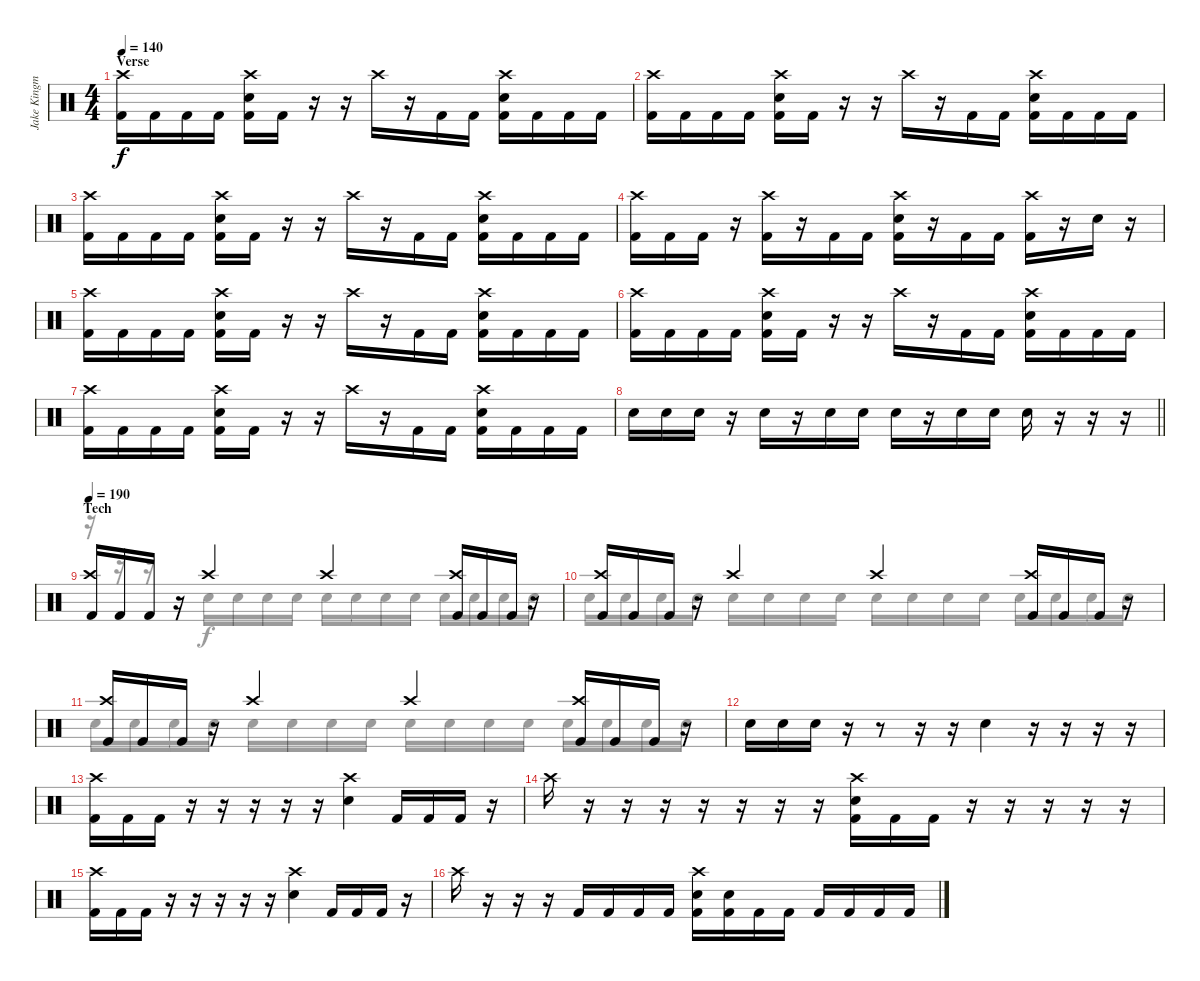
\track ("Jake Kingman (Drums)" "Jake Kingm") {instrument percussion}
\staff {score}
\articulation defaults
\voice
\ts (4 4)
\section ("" "Verse")
\tempo 140
\clef neutral
\ks c
("Crash high (hit)" "Kick (hit) 2").16{dy f} "Kick (hit) 2".16 "Kick (hit) 2".16 "Kick (hit) 2".16 ("Crash high (hit)" "Electric Snare (hit)" "Kick (hit) 2").16 "Kick (hit) 2".16 r.16 r.16 "Crash high (hit)".16 r.16 "Kick (hit) 2".16 "Kick (hit) 2".16 ("Crash high (hit)" "Electric Snare (hit)" "Kick (hit) 2").16 "Kick (hit) 2".16 "Kick (hit) 2".16 "Kick (hit) 2".16 |
("Crash high (hit)" "Kick (hit) 2").16 "Kick (hit) 2".16 "Kick (hit) 2".16 "Kick (hit) 2".16 ("Crash high (hit)" "Electric Snare (hit)" "Kick (hit) 2").16 "Kick (hit) 2".16 r.16 r.16 "Crash high (hit)".16 r.16 "Kick (hit) 2".16 "Kick (hit) 2".16 ("Crash high (hit)" "Electric Snare (hit)" "Kick (hit) 2").16 "Kick (hit) 2".16 "Kick (hit) 2".16 "Kick (hit) 2".16 |
("Crash high (hit)" "Kick (hit) 2").16 "Kick (hit) 2".16 "Kick (hit) 2".16 "Kick (hit) 2".16 ("Crash high (hit)" "Electric Snare (hit)" "Kick (hit) 2").16 "Kick (hit) 2".16 r.16 r.16 "Crash high (hit)".16 r.16 "Kick (hit) 2".16 "Kick (hit) 2".16 ("Crash high (hit)" "Electric Snare (hit)" "Kick (hit) 2").16 "Kick (hit) 2".16 "Kick (hit) 2".16 "Kick (hit) 2".16 |
("Crash high (hit)" "Kick (hit) 2").16 "Kick (hit) 2".16 "Kick (hit) 2".16 r.16 ("Crash high (hit)" "Kick (hit) 2").16 r.16 "Kick (hit) 2".16 "Kick (hit) 2".16 ("Crash high (hit)" "Electric Snare (hit)" "Kick (hit) 2").16 r.16 "Kick (hit) 2".16 "Kick (hit) 2".16 ("Crash high (hit)" "Kick (hit) 2").16 r.16 "Electric Snare (hit)".16 r.16 |
("Crash high (hit)" "Kick (hit) 2").16 "Kick (hit) 2".16 "Kick (hit) 2".16 "Kick (hit) 2".16 ("Crash high (hit)" "Electric Snare (hit)" "Kick (hit) 2").16 "Kick (hit) 2".16 r.16 r.16 "Crash high (hit)".16 r.16 "Kick (hit) 2".16 "Kick (hit) 2".16 ("Crash high (hit)" "Electric Snare (hit)" "Kick (hit) 2").16 "Kick (hit) 2".16 "Kick (hit) 2".16 "Kick (hit) 2".16 |
("Crash high (hit)" "Kick (hit) 2").16 "Kick (hit) 2".16 "Kick (hit) 2".16 "Kick (hit) 2".16 ("Crash high (hit)" "Electric Snare (hit)" "Kick (hit) 2").16 "Kick (hit) 2".16 r.16 r.16 "Crash high (hit)".16 r.16 "Kick (hit) 2".16 "Kick (hit) 2".16 ("Crash high (hit)" "Electric Snare (hit)" "Kick (hit) 2").16 "Kick (hit) 2".16 "Kick (hit) 2".16 "Kick (hit) 2".16 |
("Crash high (hit)" "Kick (hit) 2").16 "Kick (hit) 2".16 "Kick (hit) 2".16 "Kick (hit) 2".16 ("Crash high (hit)" "Electric Snare (hit)" "Kick (hit) 2").16 "Kick (hit) 2".16 r.16 r.16 "Crash high (hit)".16 r.16 "Kick (hit) 2".16 "Kick (hit) 2".16 ("Crash high (hit)" "Electric Snare (hit)" "Kick (hit) 2").16 "Kick (hit) 2".16 "Kick (hit) 2".16 "Kick (hit) 2".16 |
\barLineRight lightlight "Electric Snare (hit)".16 "Electric Snare (hit)".16 "Electric Snare (hit)".16
r.16 "Electric Snare (hit)".16 r.16 "Electric Snare (hit)".16 "Electric Snare (hit)".16 "Electric Snare (hit)".16 r.16 "Electric Snare (hit)".16 "Electric Snare (hit)".16 "Electric Snare (hit)".16 r.16 r.16 r.16 |
\section ("" "Tech")
\tempo 190
("Crash high (hit)" "Kick (hit) 2").16 "Kick (hit) 2".16 "Kick (hit) 2".16 r.16 "Crash high (hit)".4 "Crash high (hit)".4 ("Crash high (hit)" "Kick (hit) 2").16 "Kick (hit) 2".16 "Kick (hit) 2".16 r.16 |
("Crash high (hit)" "Kick (hit) 2").16 "Kick (hit) 2".16 "Kick (hit) 2".16 r.16 "Crash high (hit)".4 "Crash high (hit)".4 ("Crash high (hit)" "Kick (hit) 2").16 "Kick (hit) 2".16 "Kick (hit) 2".16 r.16 |
("Crash high (hit)" "Kick (hit) 2").16 "Kick (hit) 2".16 "Kick (hit) 2".16 r.16 "Crash high (hit)".4 "Crash high (hit)".4 ("Crash high (hit)" "Kick (hit) 2").16 "Kick (hit) 2".16 "Kick (hit) 2".16 r.16 |
"Electric Snare (hit)".16 "Electric Snare (hit)".16 "Electric Snare (hit)".16 r.16 r.8 r.16 r.16 "Electric Snare (hit)".4 r.16 r.16 r.16 r.16 |
("Crash high (hit)" "Kick (hit) 2").16 "Kick (hit) 2".16 "Kick (hit) 2".16 r.16 r.16 r.16 r.16 r.16 ("Crash high (hit)" "Electric Snare (hit)").4 "Kick (hit) 2".16 "Kick (hit) 2".16 "Kick (hit) 2".16 r.16 |
"Crash high (hit)".16 r.16 r.16 r.16 r.16 r.16 r.16 r.16 ("Crash high (hit)" "Electric Snare (hit)" "Kick (hit) 2").16 "Kick (hit) 2".16 "Kick (hit) 2".16 r.16 r.16 r.16 r.16 r.16 |
("Crash high (hit)" "Kick (hit) 2").16 "Kick (hit) 2".16 "Kick (hit) 2".16 r.16 r.16 r.16 r.16 r.16 ("Crash high (hit)" "Electric Snare (hit)").4 "Kick (hit) 2".16 "Kick (hit) 2".16 "Kick (hit) 2".16 r.16 |
"Crash high (hit)".16 r.16 r.16 r.16 "Kick (hit) 2".16 "Kick (hit) 2".16 "Kick (hit) 2".16 "Kick (hit) 2".16 ("Crash high (hit)" "Electric Snare (hit)" "Kick (hit) 2").16 ("Electric Snare (hit)" "Kick (hit) 2").16 "Kick (hit) 2".16 "Kick (hit) 2".16 "Kick (hit) 2".16 "Kick (hit) 2".16 "Kick (hit) 2".16 "Kick (hit) 2".16
\voice
\clef neutral
\ottava regular
\simile none
\ks c
|
|
|
|
|
|
|
\barLineRight lightlight
|
r.16 r.16 r.16 r.16 "Electric Snare (hit)".16 "Electric Snare (hit)".16 "Electric Snare (hit)".16 "Electric Snare (hit)".16 "Electric Snare (hit)".16 "Electric Snare (hit)".16 "Electric Snare (hit)".16 "Electric Snare (hit)".16 "Electric Snare (hit)".16 "Electric Snare (hit)".16 "Electric Snare (hit)".16 "Electric Snare (hit)".16 |
"Electric Snare (hit)".16 "Electric Snare (hit)".16 "Electric Snare (hit)".16 "Electric Snare (hit)".16 "Electric Snare (hit)".16 "Electric Snare (hit)".16 "Electric Snare (hit)".16 "Electric Snare (hit)".16 "Electric Snare (hit)".16 "Electric Snare (hit)".16 "Electric Snare (hit)".16 "Electric Snare (hit)".16 "Electric Snare (hit)".16 "Electric Snare (hit)".16 "Electric Snare (hit)".16 "Electric Snare (hit)".16 |
"Electric Snare (hit)".16 "Electric Snare (hit)".16 "Electric Snare (hit)".16 "Electric Snare (hit)".16 "Electric Snare (hit)".16 "Electric Snare (hit)".16 "Electric Snare (hit)".16 "Electric Snare (hit)".16 "Electric Snare (hit)".16 "Electric Snare (hit)".16 "Electric Snare (hit)".16 "Electric Snare (hit)".16 "Electric Snare (hit)".16 "Electric Snare (hit)".16 "Electric Snare (hit)".16 "Electric Snare (hit)".16 |
|
|
|
|
